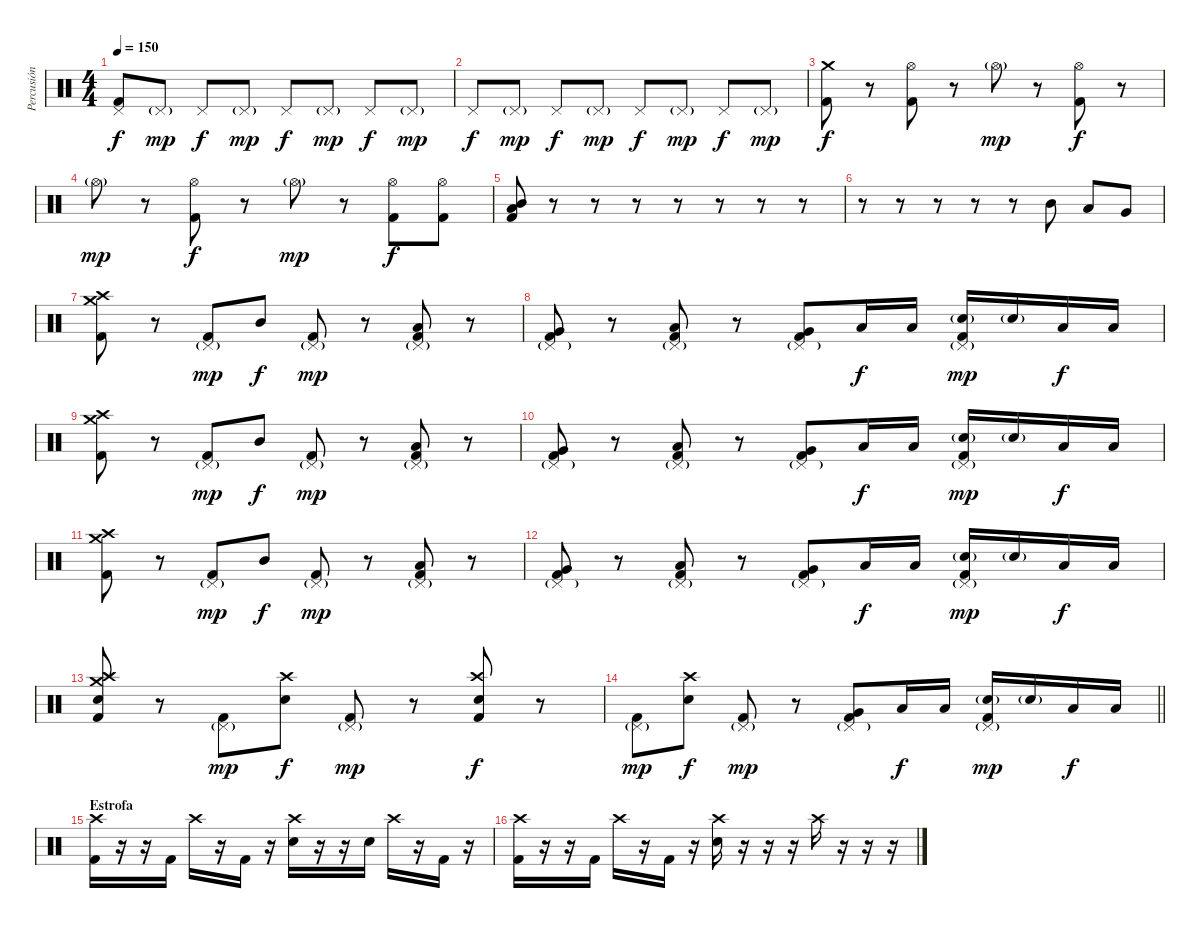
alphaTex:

\track ("Percusión" "Percusión") {instrument percussion}
\staff {score}
\articulation defaults
\ts (4 4)
\tempo 150
\clef neutral
\ks c
("Pedal Hi-Hat (hit)" "Kick (hit) 2").8{dy f} "Pedal Hi-Hat (hit)"{g}.8{dy mp} "Pedal Hi-Hat (hit)".8{dy f} "Pedal Hi-Hat (hit)"{g}.8{dy mp} "Pedal Hi-Hat (hit)".8{dy f} "Pedal Hi-Hat (hit)"{g}.8{dy mp} "Pedal Hi-Hat (hit)".8{dy f} "Pedal Hi-Hat (hit)"{g}.8{dy mp} |
"Pedal Hi-Hat (hit)".8{dy f} "Pedal Hi-Hat (hit)"{g}.8{dy mp} "Pedal Hi-Hat (hit)".8{dy f} "Pedal Hi-Hat (hit)"{g}.8{dy mp} "Pedal Hi-Hat (hit)".8{dy f} "Pedal Hi-Hat (hit)"{g}.8{dy mp} "Pedal Hi-Hat (hit)".8{dy f} "Pedal Hi-Hat (hit)"{g}.8{dy mp} |
("Crash medium (hit)" "Kick (hit) 2").8{dy f} r.8 ("Hi-Hat (open)" "Kick (hit) 2").8 r.8 "Hi-Hat (open)"{g}.8{dy mp} r.8 ("Hi-Hat (open)" "Kick (hit) 2").8{dy f} r.8 |
"Hi-Hat (open)"{g}.8{dy mp} r.8 ("Hi-Hat (open)" "Kick (hit) 2").8{dy f} r.8 "Hi-Hat (open)"{g}.8{dy mp} r.8 ("Hi-Hat (open)" "Kick (hit) 2").8{dy f} ("Hi-Hat (open)" "Kick (hit) 2").8 |
("Mid Tom (hit)" "Low Tom (hit)" "Kick (hit) 2").8 r.8 r.8 r.8 r.8 r.8 r.8 r.8 |
r.8 r.8 r.8 r.8 r.8 "Mid Tom (hit)".8 "Low Tom (hit)".8 "Very Low Tom (hit)".8 |
("Crash high (hit)" "Crash medium (hit)" "Kick (hit) 2").8 r.8 ("Pedal Hi-Hat (hit)"{g} "Kick (hit) 2").8{dy mp} "Mid Tom (hit)".8{dy f} ("Pedal Hi-Hat (hit)"{g} "Kick (hit) 2").8{dy mp} r.8 ("Pedal Hi-Hat (hit)"{g} "Low Tom (hit)" "Kick (hit) 2").8 r.8 |
("Pedal Hi-Hat (hit)"{g} "Very Low Tom (hit)" "Kick (hit) 2").8 r.8 ("Pedal Hi-Hat (hit)"{g} "Low Tom (hit)" "Kick (hit) 2").8 r.8 ("Pedal Hi-Hat (hit)"{g} "Very Low Tom (hit)" "Kick (hit) 2").8 "Low Tom (hit)".16{dy f} "Low Tom (hit)".16 ("Pedal Hi-Hat (hit)"{g} "Electric Snare (hit)"{g} "Kick (hit) 2").16{dy mp} "Electric Snare (hit)"{g}.16 "Low Tom (hit)".16{dy f} "Low Tom (hit)".16 |
("Crash high (hit)" "Crash medium (hit)" "Kick (hit) 2").8 r.8 ("Pedal Hi-Hat (hit)"{g} "Kick (hit) 2").8{dy mp} "Mid Tom (hit)".8{dy f} ("Pedal Hi-Hat (hit)"{g} "Kick (hit) 2").8{dy mp} r.8 ("Pedal Hi-Hat (hit)"{g} "Low Tom (hit)" "Kick (hit) 2").8 r.8 |
("Pedal Hi-Hat (hit)"{g} "Very Low Tom (hit)" "Kick (hit) 2").8 r.8 ("Pedal Hi-Hat (hit)"{g} "Low Tom (hit)" "Kick (hit) 2").8 r.8 ("Pedal Hi-Hat (hit)"{g} "Very Low Tom (hit)" "Kick (hit) 2").8 "Low Tom (hit)".16{dy f} "Low Tom (hit)".16 ("Pedal Hi-Hat (hit)"{g} "Electric Snare (hit)"{g} "Kick (hit) 2").16{dy mp} "Electric Snare (hit)"{g}.16 "Low Tom (hit)".16{dy f} "Low Tom (hit)".16 |
("Crash high (hit)" "Crash medium (hit)" "Kick (hit) 2").8 r.8 ("Pedal Hi-Hat (hit)"{g} "Kick (hit) 2").8{dy mp} "Mid Tom (hit)".8{dy f} ("Pedal Hi-Hat (hit)"{g} "Kick (hit) 2").8{dy mp} r.8 ("Pedal Hi-Hat (hit)"{g} "Low Tom (hit)" "Kick (hit) 2").8 r.8 |
("Pedal Hi-Hat (hit)"{g} "Very Low Tom (hit)" "Kick (hit) 2").8 r.8 ("Pedal Hi-Hat (hit)"{g} "Low Tom (hit)" "Kick (hit) 2").8 r.8 ("Pedal Hi-Hat (hit)"{g} "Very Low Tom (hit)" "Kick (hit) 2").8 "Low Tom (hit)".16{dy f} "Low Tom (hit)".16 ("Pedal Hi-Hat (hit)"{g} "Electric Snare (hit)"{g} "Kick (hit) 2").16{dy mp} "Electric Snare (hit)"{g}.16 "Low Tom (hit)".16{dy f} "Low Tom (hit)".16 |
("Crash high (hit)" "Crash medium (hit)" "Electric Snare (hit)" "Kick (hit) 2").8 r.8 ("Pedal Hi-Hat (hit)"{g} "Kick (hit) 2").8{dy mp} ("Crash high (hit)" "Electric Snare (hit)").8{dy f} ("Pedal Hi-Hat (hit)"{g} "Kick (hit) 2").8{dy mp} r.8 ("Crash high (hit)" "Electric Snare (hit)" "Kick (hit) 2").8{dy f} r.8 |
\barLineRight lightlight
("Pedal Hi-Hat (hit)"{g} "Kick (hit) 2").8{dy mp} ("Crash high (hit)" "Electric Snare (hit)").8{dy f} ("Pedal Hi-Hat (hit)"{g} "Kick (hit) 2").8{dy mp} r.8 ("Pedal Hi-Hat (hit)"{g} "Very Low Tom (hit)" "Kick (hit) 2").8 "Low Tom (hit)".16{dy f} "Low Tom (hit)".16 ("Pedal Hi-Hat (hit)"{g} "Electric Snare (hit)"{g} "Kick (hit) 2").16{dy mp} "Electric Snare (hit)"{g}.16 "Low Tom (hit)".16{dy f} "Low Tom (hit)".16 |
\section ("" "Estrofa")
("Crash high (hit)" "Kick (hit) 2").16 r.16 r.16 "Kick (hit) 2".16 "Crash high (hit)".16 r.16 "Kick (hit) 2".16 r.16 ("Crash high (hit)" "Electric Snare (hit)").16 r.16 r.16 "Electric Snare (hit)".16 "Crash high (hit)".16 r.16 "Kick (hit) 2".16 r.16 |
("Crash high (hit)" "Kick (hit) 2").16 r.16 r.16 "Kick (hit) 2".16 "Crash high (hit)".16 r.16 "Kick (hit) 2".16 r.16 ("Crash high (hit)" "Electric Snare (hit)").16 r.16 r.16 r.16 "Crash high (hit)".16 r.16 r.16 r.16
